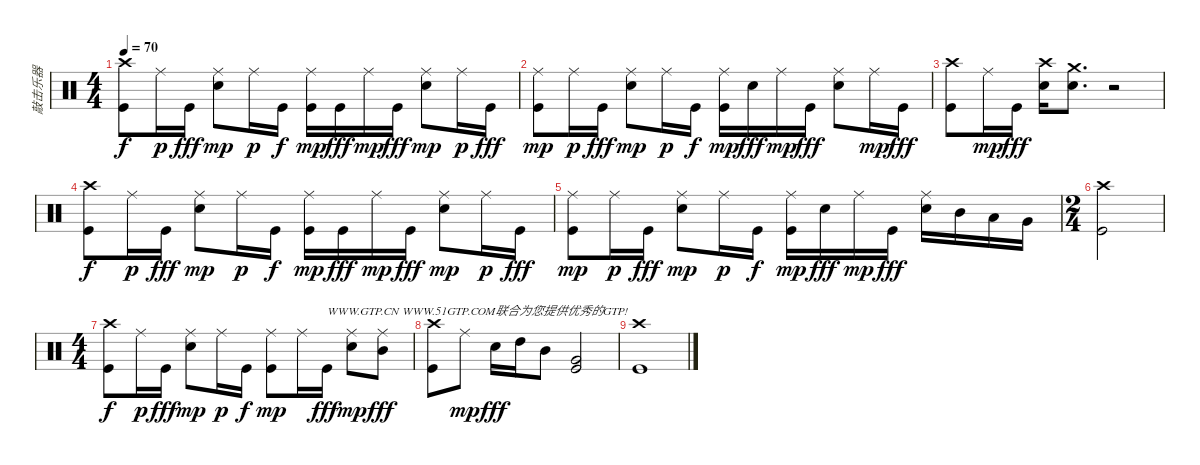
\track ("敲击乐器" "敲击乐器") {instrument percussion}
\staff {score}
\articulation defaults
\ts (4 4)
\tempo 70
\clef neutral
\ks c
("Crash high (hit)" "Kick (hit)").8{dy f} "Ride (middle)".16{dy p} "Kick (hit)".16{dy fff} ("Ride (middle)" "Electric Snare (hit)").8{dy mp} "Ride (middle)".16{dy p} "Kick (hit)".16{dy f} ("Ride (middle)" "Kick (hit)").16{dy mp} "Kick (hit)".16{dy fff} "Ride (middle)".16{dy mp} "Kick (hit)".16{dy fff} ("Ride (middle)" "Electric Snare (hit)").8{dy mp} "Ride (middle)".16{dy p} "Kick (hit)".16{dy fff} |
("Ride (middle)" "Kick (hit)").8{dy mp} "Ride (middle)".16{dy p} "Kick (hit)".16{dy fff} ("Ride (middle)" "Electric Snare (hit)").8{dy mp} "Ride (middle)".16{dy p} "Kick (hit)".16{dy f} ("Ride (middle)" "Kick (hit)").16{dy mp} "Electric Snare (hit)".16{dy fff} "Ride (middle)".16{dy mp} "Kick (hit)".16{dy fff} ("Ride (middle)" "Electric Snare (hit)").8 "Ride (middle)".16{dy mp} "Kick (hit)".16{dy fff} |
("Crash high (hit)" "Kick (hit)").8 "Ride (middle)".16{dy mp} "Kick (hit)".16{dy fff} ("Crash high (hit)" "Electric Snare (hit)").16 ("Crash medium (hit)" "Electric Snare (hit)").8{d} r.2 |
("Crash high (hit)" "Kick (hit)").8{dy f} "Ride (middle)".16{dy p} "Kick (hit)".16{dy fff} ("Ride (middle)" "Electric Snare (hit)").8{dy mp} "Ride (middle)".16{dy p} "Kick (hit)".16{dy f} ("Ride (middle)" "Kick (hit)").16{dy mp} "Kick (hit)".16{dy fff} "Ride (middle)".16{dy mp} "Kick (hit)".16{dy fff} ("Ride (middle)" "Electric Snare (hit)").8{dy mp} "Ride (middle)".16{dy p} "Kick (hit)".16{dy fff} |
("Ride (middle)" "Kick (hit)").8{dy mp} "Ride (middle)".16{dy p} "Kick (hit)".16{dy fff} ("Ride (middle)" "Electric Snare (hit)").8{dy mp} "Ride (middle)".16{dy p} "Kick (hit)".16{dy f} ("Ride (middle)" "Kick (hit)").16{dy mp} "Electric Snare (hit)".16{dy fff} "Ride (middle)".16{dy mp} "Kick (hit)".16{dy fff} ("Ride (middle)" "Electric Snare (hit)").16 "Mid Tom (hit)".16 "Low Tom (hit)".16 "Very Low Tom (hit)".16 |
\ts (2 4)
("Crash high (hit)" "Kick (hit)").2 |
\ts (4 4)
("Crash high (hit)" "Kick (hit)").8{dy f} "Ride (middle)".16{dy p} "Kick (hit)".16{dy fff} ("Ride (middle)" "Electric Snare (hit)").8{dy mp} "Ride (middle)".16{dy p} "Kick (hit)".16{dy f} ("Ride (middle)" "Kick (hit)").8{dy mp} "Ride (middle)".16 "Kick (hit)".16{txt "WWW.GTP.CN WWW.51GTP.COM联合为您提供优秀的GTP!" dy fff} ("Ride (middle)" "Electric Snare (hit)").8{dy mp} ("Ride (middle)" "Mid Tom (hit)").8{dy fff} |
("Crash high (hit)" "Kick (hit)").8 "Ride (middle)".8{dy mp} "Electric Snare (hit)".16{dy fff} "High Tom (hit)".16 "Mid Tom (hit)".8 ("Very Low Tom (hit)" "Kick (hit)").2 |
("Crash high (hit)" "Kick (hit)").1
